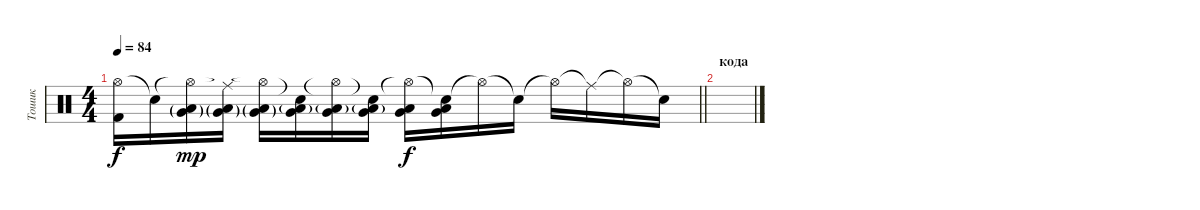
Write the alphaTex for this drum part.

\track ("Тошик" "Тошик") {instrument percussion}
\staff {score}
\articulation defaults
\ts (4 4)
\tempo 84
\clef neutral
\barLineRight lightlight
\ks c
("Hi-Hat (open)" "Kick (hit) 2").16{dy f} "Snare (hit)"{t}.16 ("Hi-Hat (open)"{t} "Very Low Tom (hit)"{g} "Low Floor Tom (hit)"{g}).16{dy mp} ("Ride (middle)"{t} "Very Low Tom (hit)"{g} "Low Floor Tom (hit)"{g}).16 ("Hi-Hat (open)"{t} "Very Low Tom (hit)"{g} "Low Floor Tom (hit)"{g}).16 ("Snare (hit)"{t} "Very Low Tom (hit)" "Low Floor Tom (hit)"{g}).16 ("Hi-Hat (open)"{t} "Very Low Tom (hit)" "Low Floor Tom (hit)"{g}).16 ("Snare (hit)"{t} "Very Low Tom (hit)" "Low Floor Tom (hit)"{g}).16 ("Hi-Hat (open)"{t} "Very Low Tom (hit)" "Low Floor Tom (hit)").16{dy f} ("Snare (hit)"{t} "Very Low Tom (hit)" "Low Floor Tom (hit)").16 "Hi-Hat (open)"{t}.16 "Snare (hit)"{t}.16 "Hi-Hat (open)"{t}.16 "Ride (middle)"{t}.16 "Hi-Hat (open)"{t}.16 "Snare (hit)"{t}.16 |
\section ("" "кода")
